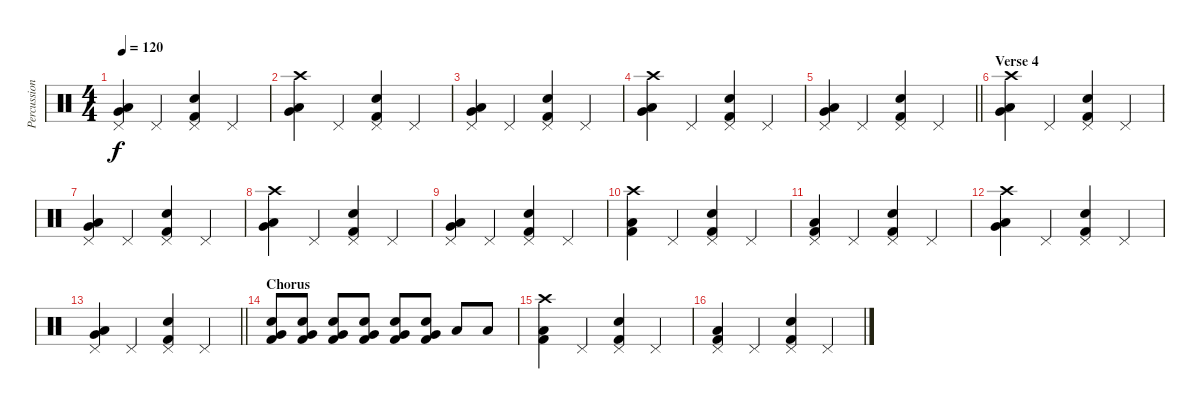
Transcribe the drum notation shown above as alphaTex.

\track ("Percussion" "Percussion") {instrument percussion}
\staff {score}
\articulation defaults
\ts (4 4)
\tempo 120
\clef neutral
\ks c
("Pedal Hi-Hat (hit)" "Low Floor Tom (hit)" "Very Low Tom (hit)").4{dy f} "Pedal Hi-Hat (hit)".4 ("Pedal Hi-Hat (hit)" "Snare (hit) 2" "Kick (hit) 2").4 "Pedal Hi-Hat (hit)".4 |
("Crash high (hit)" "Low Floor Tom (hit)" "Very Low Tom (hit)").4 "Pedal Hi-Hat (hit)".4 ("Pedal Hi-Hat (hit)" "Snare (hit) 2" "Kick (hit) 2").4 "Pedal Hi-Hat (hit)".4 |
("Pedal Hi-Hat (hit)" "Low Floor Tom (hit)" "Very Low Tom (hit)").4 "Pedal Hi-Hat (hit)".4 ("Pedal Hi-Hat (hit)" "Snare (hit) 2" "Kick (hit) 2").4 "Pedal Hi-Hat (hit)".4 |
("Crash high (hit)" "Low Floor Tom (hit)" "Very Low Tom (hit)").4 "Pedal Hi-Hat (hit)".4 ("Pedal Hi-Hat (hit)" "Snare (hit) 2" "Kick (hit) 2").4 "Pedal Hi-Hat (hit)".4 |
\barLineRight lightlight
("Pedal Hi-Hat (hit)" "Low Floor Tom (hit)" "Very Low Tom (hit)").4 "Pedal Hi-Hat (hit)".4 ("Pedal Hi-Hat (hit)" "Snare (hit) 2" "Kick (hit) 2").4 "Pedal Hi-Hat (hit)".4 |
\section ("" "Verse 4")
("Crash high (hit)" "Low Floor Tom (hit)" "Very Low Tom (hit)").4 "Pedal Hi-Hat (hit)".4 ("Pedal Hi-Hat (hit)" "Snare (hit) 2" "Kick (hit) 2").4 "Pedal Hi-Hat (hit)".4 |
("Pedal Hi-Hat (hit)" "Low Floor Tom (hit)" "Very Low Tom (hit)").4 "Pedal Hi-Hat (hit)".4 ("Pedal Hi-Hat (hit)" "Snare (hit) 2" "Kick (hit) 2").4 "Pedal Hi-Hat (hit)".4 |
("Crash high (hit)" "Low Floor Tom (hit)" "Very Low Tom (hit)").4 "Pedal Hi-Hat (hit)".4 ("Pedal Hi-Hat (hit)" "Snare (hit) 2" "Kick (hit) 2").4 "Pedal Hi-Hat (hit)".4 |
("Pedal Hi-Hat (hit)" "Low Floor Tom (hit)" "Very Low Tom (hit)").4 "Pedal Hi-Hat (hit)".4 ("Pedal Hi-Hat (hit)" "Snare (hit) 2" "Kick (hit) 2").4 "Pedal Hi-Hat (hit)".4 |
("Crash high (hit)" "Low Floor Tom (hit)" "Kick (hit) 2").4 "Pedal Hi-Hat (hit)".4 ("Pedal Hi-Hat (hit)" "Snare (hit) 2" "Kick (hit) 2").4 "Pedal Hi-Hat (hit)".4 |
("Pedal Hi-Hat (hit)" "Low Floor Tom (hit)" "Kick (hit) 2").4 "Pedal Hi-Hat (hit)".4 ("Pedal Hi-Hat (hit)" "Snare (hit) 2" "Kick (hit) 2").4 "Pedal Hi-Hat (hit)".4 |
("Crash high (hit)" "Low Floor Tom (hit)" "Very Low Tom (hit)").4 "Pedal Hi-Hat (hit)".4 ("Pedal Hi-Hat (hit)" "Snare (hit) 2" "Kick (hit) 2").4 "Pedal Hi-Hat (hit)".4 |
\barLineRight lightlight
("Pedal Hi-Hat (hit)" "Low Floor Tom (hit)" "Very Low Tom (hit)").4 "Pedal Hi-Hat (hit)".4 ("Pedal Hi-Hat (hit)" "Snare (hit) 2" "Kick (hit) 2").4 "Pedal Hi-Hat (hit)".4 |
\section ("" "Chorus")
("Kick (hit) 2" "Snare (hit) 2" "Very Low Tom (hit)").8 ("Kick (hit) 2" "Snare (hit) 2" "Very Low Tom (hit)").8 ("Kick (hit) 2" "Snare (hit) 2" "Very Low Tom (hit)").8 ("Kick (hit) 2" "Snare (hit) 2" "Very Low Tom (hit)").8 ("Kick (hit) 2" "Snare (hit) 2" "Very Low Tom (hit)").8 ("Kick (hit) 2" "Snare (hit) 2" "Very Low Tom (hit)").8 "Low Floor Tom (hit)".8 "Low Floor Tom (hit)".8 |
("Crash high (hit)" "Low Floor Tom (hit)" "Kick (hit) 2").4 "Pedal Hi-Hat (hit)".4 ("Pedal Hi-Hat (hit)" "Snare (hit) 2" "Kick (hit) 2").4 "Pedal Hi-Hat (hit)".4 |
("Pedal Hi-Hat (hit)" "Low Floor Tom (hit)" "Kick (hit) 2").4 "Pedal Hi-Hat (hit)".4 ("Pedal Hi-Hat (hit)" "Snare (hit) 2" "Kick (hit) 2").4 "Pedal Hi-Hat (hit)".4
